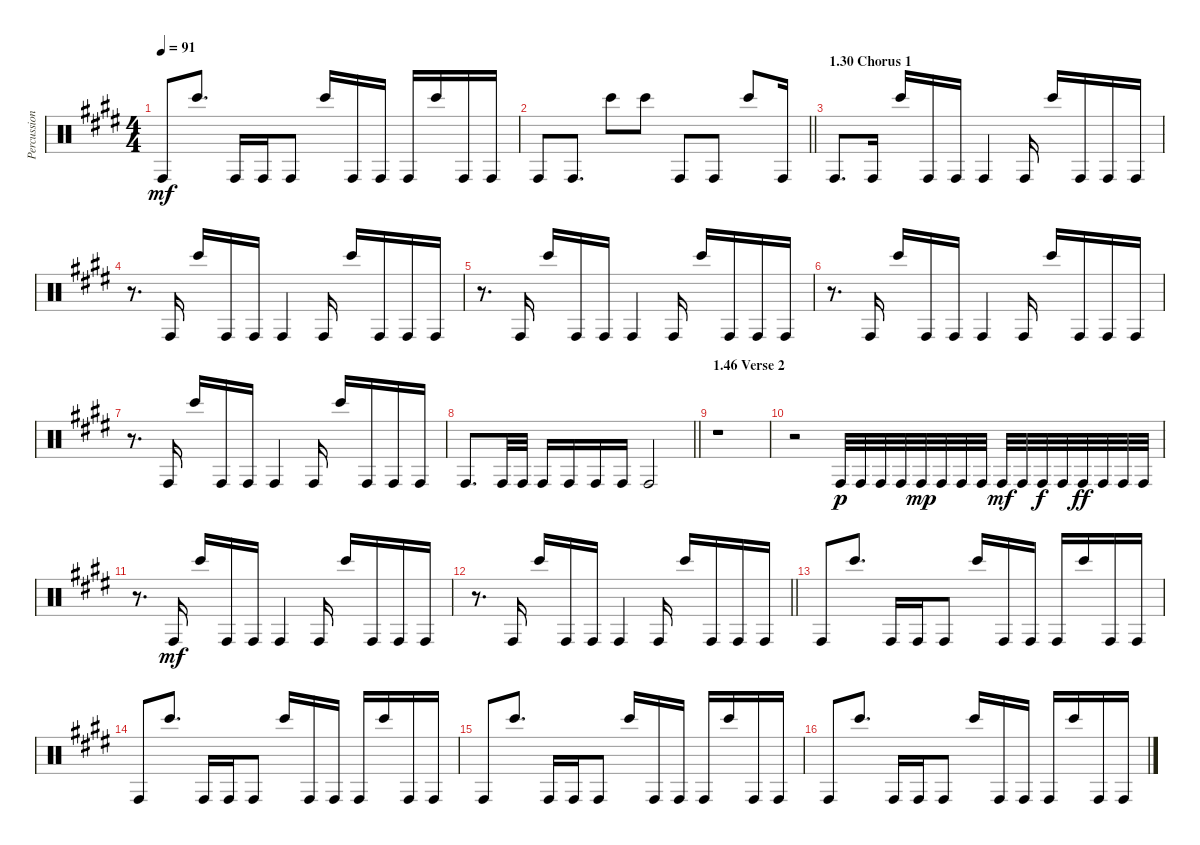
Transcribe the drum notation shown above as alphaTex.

\track ("Percussion" "Percussion") {instrument percussion}
\staff {score}
\articulation defaults
\ts (4 4)
\tempo 91
\clef neutral
\ks e "Conga high (hit)".8{dy mf} "Bongo High (hit)".8{d} "Conga high (hit)".16 "Conga high (hit)".16 "Conga high (hit)".8 "Bongo High (hit)".16 "Conga high (hit)".16 "Conga high (hit)".16 "Conga high (hit)".16 "Bongo High (hit)".16 "Conga high (hit)".16 "Conga high (hit)".16
|
\barLineRight lightlight "Conga high (hit)".8 "Conga high (hit)".8{d} "Bongo High (hit)".8 "Bongo High (hit)".8 "Conga high (hit)".8 "Conga high (hit)".8 "Bongo High (hit)".8 "Conga high (hit)".16
|
\section ("" "1.30 Chorus 1")
"Conga high (hit)".8{d} "Conga high (hit)".16 "Bongo High (hit)".16 "Conga high (hit)".16 "Conga high (hit)".16 "Conga high (hit)".4 "Conga high (hit)".16 "Bongo High (hit)".16 "Conga high (hit)".16 "Conga high (hit)".16 "Conga high (hit)".16 |
r.8{d} "Conga high (hit)".16 "Bongo High (hit)".16 "Conga high (hit)".16 "Conga high (hit)".16 "Conga high (hit)".4 "Conga high (hit)".16 "Bongo High (hit)".16 "Conga high (hit)".16 "Conga high (hit)".16 "Conga high (hit)".16 |
r.8{d} "Conga high (hit)".16 "Bongo High (hit)".16 "Conga high (hit)".16 "Conga high (hit)".16 "Conga high (hit)".4 "Conga high (hit)".16 "Bongo High (hit)".16 "Conga high (hit)".16 "Conga high (hit)".16 "Conga high (hit)".16 |
r.8{d} "Conga high (hit)".16 "Bongo High (hit)".16 "Conga high (hit)".16 "Conga high (hit)".16 "Conga high (hit)".4 "Conga high (hit)".16 "Bongo High (hit)".16 "Conga high (hit)".16 "Conga high (hit)".16 "Conga high (hit)".16 |
r.8{d} "Conga high (hit)".16 "Bongo High (hit)".16 "Conga high (hit)".16 "Conga high (hit)".16 "Conga high (hit)".4 "Conga high (hit)".16 "Bongo High (hit)".16 "Conga high (hit)".16 "Conga high (hit)".16 "Conga high (hit)".16 |
\barLineRight lightlight "Conga high (hit)".8{d} "Conga high (hit)".32 "Conga high (hit)".32 "Conga high (hit)".16 "Conga high (hit)".16 "Conga high (hit)".16 "Conga high (hit)".16 "Conga high (hit)".2
|
\section ("" "1.46 Verse 2")
r.1 |
r.2 "Conga high (hit)".32{dy p} "Conga high (hit)".32 "Conga high (hit)".32 "Conga high (hit)".32 "Conga high (hit)".32{dy mp} "Conga high (hit)".32 "Conga high (hit)".32 "Conga high (hit)".32 "Conga high (hit)".32{dy mf} "Conga high (hit)".32 "Conga high (hit)".32{dy f} "Conga high (hit)".32 "Conga high (hit)".32{dy ff} "Conga high (hit)".32 "Conga high (hit)".32 "Conga high (hit)".32 |
r.8{d} "Conga high (hit)".16{dy mf} "Bongo High (hit)".16 "Conga high (hit)".16 "Conga high (hit)".16 "Conga high (hit)".4 "Conga high (hit)".16 "Bongo High (hit)".16 "Conga high (hit)".16 "Conga high (hit)".16 "Conga high (hit)".16 |
\barLineRight lightlight
r.8{d} "Conga high (hit)".16 "Bongo High (hit)".16 "Conga high (hit)".16 "Conga high (hit)".16 "Conga high (hit)".4 "Conga high (hit)".16 "Bongo High (hit)".16 "Conga high (hit)".16 "Conga high (hit)".16 "Conga high (hit)".16 |
"Conga high (hit)".8 "Bongo High (hit)".8{d} "Conga high (hit)".16 "Conga high (hit)".16 "Conga high (hit)".8 "Bongo High (hit)".16 "Conga high (hit)".16 "Conga high (hit)".16 "Conga high (hit)".16 "Bongo High (hit)".16 "Conga high (hit)".16 "Conga high (hit)".16 |
"Conga high (hit)".8 "Bongo High (hit)".8{d} "Conga high (hit)".16 "Conga high (hit)".16 "Conga high (hit)".8 "Bongo High (hit)".16 "Conga high (hit)".16 "Conga high (hit)".16 "Conga high (hit)".16 "Bongo High (hit)".16 "Conga high (hit)".16 "Conga high (hit)".16 |
"Conga high (hit)".8 "Bongo High (hit)".8{d} "Conga high (hit)".16 "Conga high (hit)".16 "Conga high (hit)".8 "Bongo High (hit)".16 "Conga high (hit)".16 "Conga high (hit)".16 "Conga high (hit)".16 "Bongo High (hit)".16 "Conga high (hit)".16 "Conga high (hit)".16 |
"Conga high (hit)".8 "Bongo High (hit)".8{d} "Conga high (hit)".16 "Conga high (hit)".16 "Conga high (hit)".8 "Bongo High (hit)".16 "Conga high (hit)".16 "Conga high (hit)".16 "Conga high (hit)".16 "Bongo High (hit)".16 "Conga high (hit)".16 "Conga high (hit)".16
